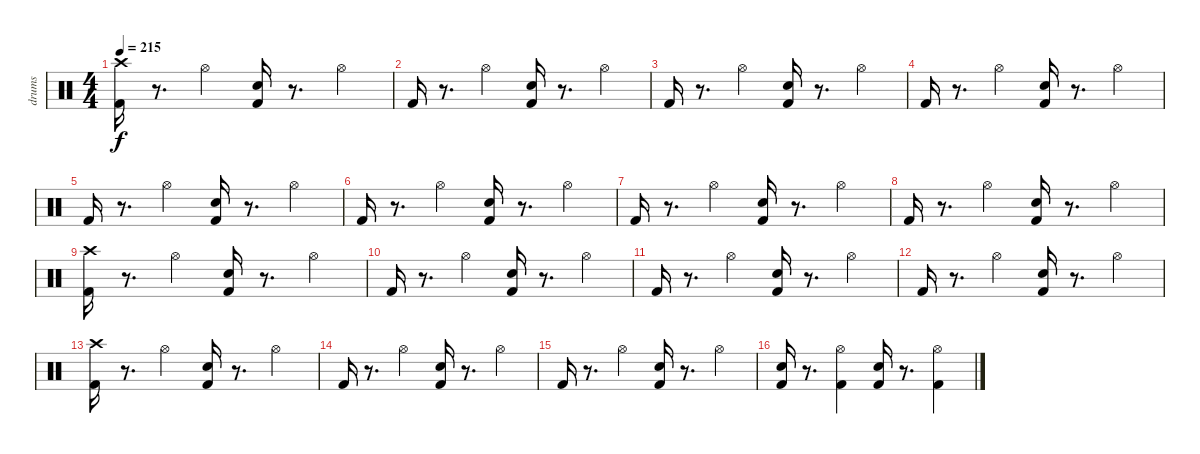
\track ("drums" "drums") {instrument percussion}
\staff {score}
\articulation defaults
\ts (4 4)
\tempo 215
\clef neutral
\ks c
("Crash high (hit)" "Kick (hit) 2").16{dy f} r.8{d} "Hi-Hat (open)".4 ("Electric Snare (hit)" "Kick (hit) 2").16 r.8{d} "Hi-Hat (open)".4 |
"Kick (hit) 2".16 r.8{d} "Hi-Hat (open)".4 ("Electric Snare (hit)" "Kick (hit) 2").16 r.8{d} "Hi-Hat (open)".4 |
"Kick (hit) 2".16 r.8{d} "Hi-Hat (open)".4 ("Electric Snare (hit)" "Kick (hit) 2").16 r.8{d} "Hi-Hat (open)".4 |
"Kick (hit) 2".16 r.8{d} "Hi-Hat (open)".4 ("Electric Snare (hit)" "Kick (hit) 2").16 r.8{d} "Hi-Hat (open)".4 |
"Kick (hit) 2".16 r.8{d} "Hi-Hat (open)".4 ("Electric Snare (hit)" "Kick (hit) 2").16 r.8{d} "Hi-Hat (open)".4 |
"Kick (hit) 2".16 r.8{d} "Hi-Hat (open)".4 ("Electric Snare (hit)" "Kick (hit) 2").16 r.8{d} "Hi-Hat (open)".4 |
"Kick (hit) 2".16 r.8{d} "Hi-Hat (open)".4 ("Electric Snare (hit)" "Kick (hit) 2").16 r.8{d} "Hi-Hat (open)".4 |
"Kick (hit) 2".16 r.8{d} "Hi-Hat (open)".4 ("Electric Snare (hit)" "Kick (hit) 2").16 r.8{d} "Hi-Hat (open)".4 |
("Crash high (hit)" "Kick (hit) 2").16 r.8{d} "Hi-Hat (open)".4 ("Electric Snare (hit)" "Kick (hit) 2").16 r.8{d} "Hi-Hat (open)".4 |
"Kick (hit) 2".16 r.8{d} "Hi-Hat (open)".4 ("Electric Snare (hit)" "Kick (hit) 2").16 r.8{d} "Hi-Hat (open)".4 |
"Kick (hit) 2".16 r.8{d} "Hi-Hat (open)".4 ("Electric Snare (hit)" "Kick (hit) 2").16 r.8{d} "Hi-Hat (open)".4 |
"Kick (hit) 2".16 r.8{d} "Hi-Hat (open)".4 ("Electric Snare (hit)" "Kick (hit) 2").16 r.8{d} "Hi-Hat (open)".4 |
("Crash high (hit)" "Kick (hit) 2").16 r.8{d} "Hi-Hat (open)".4 ("Electric Snare (hit)" "Kick (hit) 2").16 r.8{d} "Hi-Hat (open)".4 |
"Kick (hit) 2".16 r.8{d} "Hi-Hat (open)".4 ("Electric Snare (hit)" "Kick (hit) 2").16 r.8{d} "Hi-Hat (open)".4 |
"Kick (hit) 2".16 r.8{d} "Hi-Hat (open)".4 ("Electric Snare (hit)" "Kick (hit) 2").16 r.8{d} "Hi-Hat (open)".4 |
("Electric Snare (hit)" "Kick (hit) 2").16 r.8{d} ("Kick (hit) 2" "Hi-Hat (open)").4 ("Electric Snare (hit)" "Kick (hit) 2").16 r.8{d} ("Hi-Hat (open)" "Kick (hit) 2").4
